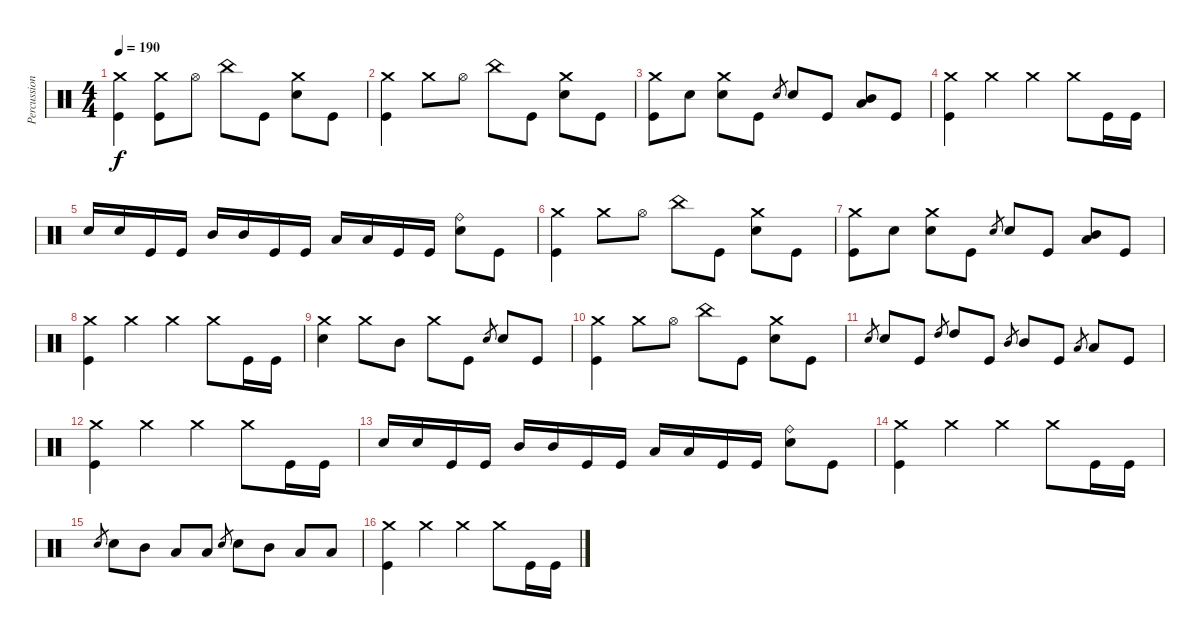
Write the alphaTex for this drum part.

\track ("Percussion" "Percussion") {instrument percussion}
\staff {score}
\articulation defaults
\ts (4 4)
\tempo 190
\clef neutral
\ks c
("Crash medium (hit)" "Kick (hit)").4{dy f} ("Crash medium (hit)" "Kick (hit)").8 "Hi-Hat (open)".8 "China (hit)".8 "Kick (hit)".8 ("Crash medium (hit)" "Snare (hit) 2").8 "Kick (hit)".8 |
("Crash medium (hit)" "Kick (hit)").4 "Crash medium (hit)".8 "Hi-Hat (open)".8 "China (hit)".8 "Kick (hit)".8 ("Crash medium (hit)" "Snare (hit) 2").8 "Kick (hit)".8 |
("Crash medium (hit)" "Kick (hit)").8 "Snare (hit) 2".8 ("Crash medium (hit)" "Snare (hit) 2").8 "Kick (hit)".8 "Snare (hit) 2".8{gr} "Snare (hit) 2".8 "Kick (hit)".8 ("Mid Tom (hit)" "Low Tom (hit)").8 "Kick (hit)".8 |
("Crash medium (hit)" "Kick (hit)").4 "Crash medium (hit)".4 "Crash medium (hit)".4 "Crash medium (hit)".8 "Kick (hit)".16 "Kick (hit)".16 |
"Snare (hit) 2".16 "Snare (hit) 2".16 "Kick (hit)".16 "Kick (hit)".16 "Mid Tom (hit)".16 "Mid Tom (hit)".16 "Kick (hit)".16 "Kick (hit)".16 "Low Tom (hit)".16 "Low Tom (hit)".16 "Kick (hit)".16 "Kick (hit)".16 ("Ride (bell)" "Snare (hit) 2").8 "Kick (hit)".8 |
("Crash medium (hit)" "Kick (hit)").4 "Crash medium (hit)".8 "Hi-Hat (open)".8 "China (hit)".8 "Kick (hit)".8 ("Crash medium (hit)" "Snare (hit) 2").8 "Kick (hit)".8 |
("Crash medium (hit)" "Kick (hit)").8 "Snare (hit) 2".8 ("Crash medium (hit)" "Snare (hit) 2").8 "Kick (hit)".8 "Snare (hit) 2".8{gr} "Snare (hit) 2".8 "Kick (hit)".8 ("Mid Tom (hit)" "Low Tom (hit)").8 "Kick (hit)".8 |
("Crash medium (hit)" "Kick (hit)").4 "Crash medium (hit)".4 "Crash medium (hit)".4 "Crash medium (hit)".8 "Kick (hit)".16 "Kick (hit)".16 |
("Crash medium (hit)" "Snare (hit) 2").4 "Crash medium (hit)".8 "Mid Tom (hit)".8 "Crash medium (hit)".8 "Kick (hit)".8 "Snare (hit) 2".8{gr} "Snare (hit) 2".8 "Kick (hit)".8 |
("Crash medium (hit)" "Kick (hit)").4 "Crash medium (hit)".8 "Hi-Hat (open)".8 "China (hit)".8 "Kick (hit)".8 ("Crash medium (hit)" "Snare (hit) 2").8 "Kick (hit)".8 |
"Snare (hit) 2".8{gr} "Snare (hit) 2".8 "Kick (hit)".8 "High Tom (hit)".8{gr} "High Tom (hit)".8 "Kick (hit)".8 "Mid Tom (hit)".8{gr} "Mid Tom (hit)".8 "Kick (hit)".8 "Low Tom (hit)".8{gr} "Low Tom (hit)".8 "Kick (hit)".8 |
("Crash medium (hit)" "Kick (hit)").4 "Crash medium (hit)".4 "Crash medium (hit)".4 "Crash medium (hit)".8 "Kick (hit)".16 "Kick (hit)".16 |
"Snare (hit) 2".16 "Snare (hit) 2".16 "Kick (hit)".16 "Kick (hit)".16 "Mid Tom (hit)".16 "Mid Tom (hit)".16 "Kick (hit)".16 "Kick (hit)".16 "Low Tom (hit)".16 "Low Tom (hit)".16 "Kick (hit)".16 "Kick (hit)".16 ("Ride (bell)" "Snare (hit) 2").8 "Kick (hit)".8 |
("Crash medium (hit)" "Kick (hit)").4 "Crash medium (hit)".4 "Crash medium (hit)".4 "Crash medium (hit)".8 "Kick (hit)".16 "Kick (hit)".16 |
"Snare (hit) 2".8{gr} "Snare (hit) 2".8 "Mid Tom (hit)".8 "Low Tom (hit)".8 "Low Tom (hit)".8 "Snare (hit) 2".8{gr} "Snare (hit) 2".8 "Mid Tom (hit)".8 "Low Tom (hit)".8 "Low Tom (hit)".8 |
("Crash medium (hit)" "Kick (hit)").4 "Crash medium (hit)".4 "Crash medium (hit)".4 "Crash medium (hit)".8 "Kick (hit)".16 "Kick (hit)".16
